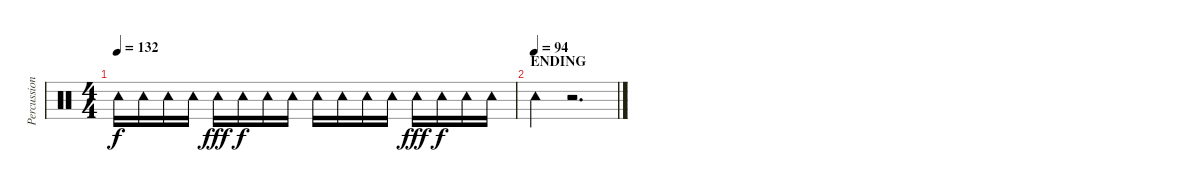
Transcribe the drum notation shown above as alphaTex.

\track ("Percussion" "Percussion") {instrument percussion}
\staff {score}
\articulation defaults
\ts (4 4)
\tempo 132
\clef neutral
\ks c "Tambourine (hit)".16{dy f} "Tambourine (hit)".16 "Tambourine (hit)".16 "Tambourine (hit)".16 "Tambourine (hit)".16{dy fff} "Tambourine (hit)".16{dy f} "Tambourine (hit)".16 "Tambourine (hit)".16 "Tambourine (hit)".16 "Tambourine (hit)".16 "Tambourine (hit)".16 "Tambourine (hit)".16 "Tambourine (hit)".16{dy fff} "Tambourine (hit)".16{dy f} "Tambourine (hit)".16 "Tambourine (hit)".16
|
\section ("" "ENDING")
\tempo (94)
"Tambourine (hit)".4 r.2{d}
